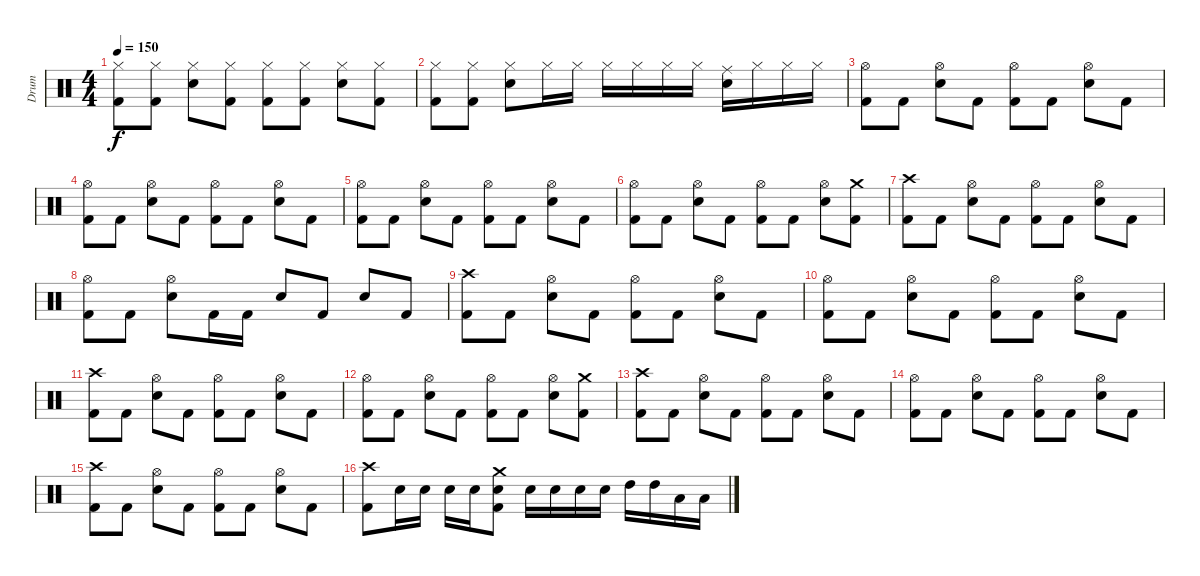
\track ("Drum" "Drum") {instrument percussion}
\staff {score}
\articulation defaults
\ts (4 4)
\tempo 150
\clef neutral
\ks c
("Hi-Hat (closed)" "Kick (hit) 2").8{dy f} ("Hi-Hat (closed)" "Kick (hit) 2").8 ("Hi-Hat (closed)" "Electric Snare (hit)").8 ("Hi-Hat (closed)" "Kick (hit) 2").8 ("Hi-Hat (closed)" "Kick (hit) 2").8 ("Hi-Hat (closed)" "Kick (hit) 2").8 ("Hi-Hat (closed)" "Electric Snare (hit)").8 ("Hi-Hat (closed)" "Kick (hit) 2").8 |
("Hi-Hat (closed)" "Kick (hit) 2").8 ("Hi-Hat (closed)" "Kick (hit) 2").8 ("Hi-Hat (closed)" "Electric Snare (hit)").8 "Hi-Hat (closed)".16 "Hi-Hat (closed)".16 "Hi-Hat (closed)".16 "Hi-Hat (closed)".16 "Hi-Hat (closed)".16 "Hi-Hat (closed)".16 ("Ride (middle)" "Electric Snare (hit)").16 "Hi-Hat (closed)".16 "Hi-Hat (closed)".16 "Hi-Hat (closed)".16 |
("Hi-Hat (open)" "Kick (hit) 2").8 "Kick (hit) 2".8 ("Hi-Hat (open)" "Electric Snare (hit)").8 "Kick (hit) 2".8 ("Hi-Hat (open)" "Kick (hit) 2").8 "Kick (hit) 2".8 ("Hi-Hat (open)" "Electric Snare (hit)").8 "Kick (hit) 2".8 |
("Hi-Hat (open)" "Kick (hit) 2").8 "Kick (hit) 2".8 ("Hi-Hat (open)" "Electric Snare (hit)").8 "Kick (hit) 2".8 ("Hi-Hat (open)" "Kick (hit) 2").8 "Kick (hit) 2".8 ("Hi-Hat (open)" "Electric Snare (hit)").8 "Kick (hit) 2".8 |
("Hi-Hat (open)" "Kick (hit) 2").8 "Kick (hit) 2".8 ("Hi-Hat (open)" "Electric Snare (hit)").8 "Kick (hit) 2".8 ("Hi-Hat (open)" "Kick (hit) 2").8 "Kick (hit) 2".8 ("Hi-Hat (open)" "Electric Snare (hit)").8 "Kick (hit) 2".8 |
("Hi-Hat (open)" "Kick (hit) 2").8 "Kick (hit) 2".8 ("Hi-Hat (open)" "Electric Snare (hit)").8 "Kick (hit) 2".8 ("Hi-Hat (open)" "Kick (hit) 2").8 "Kick (hit) 2".8 ("Hi-Hat (open)" "Electric Snare (hit)").8 ("Crash medium (hit)" "Kick (hit) 2").8 |
("Crash high (hit)" "Kick (hit) 2").8 "Kick (hit) 2".8 ("Hi-Hat (open)" "Electric Snare (hit)").8 "Kick (hit) 2".8 ("Hi-Hat (open)" "Kick (hit) 2").8 "Kick (hit) 2".8 ("Hi-Hat (open)" "Electric Snare (hit)").8 "Kick (hit) 2".8 |
("Hi-Hat (open)" "Kick (hit) 2").8 "Kick (hit) 2".8 ("Hi-Hat (open)" "Electric Snare (hit)").8 "Kick (hit) 2".16 "Kick (hit) 2".16 "Electric Snare (hit)".8 "Kick (hit) 2".8 "Electric Snare (hit)".8 "Kick (hit) 2".8 |
("Crash high (hit)" "Kick (hit) 2").8 "Kick (hit) 2".8 ("Hi-Hat (open)" "Electric Snare (hit)").8 "Kick (hit) 2".8 ("Hi-Hat (open)" "Kick (hit) 2").8 "Kick (hit) 2".8 ("Hi-Hat (open)" "Electric Snare (hit)").8 "Kick (hit) 2".8 |
("Hi-Hat (open)" "Kick (hit) 2").8 "Kick (hit) 2".8 ("Hi-Hat (open)" "Electric Snare (hit)").8 "Kick (hit) 2".8 ("Hi-Hat (open)" "Kick (hit) 2").8 "Kick (hit) 2".8 ("Hi-Hat (open)" "Electric Snare (hit)").8 "Kick (hit) 2".8 |
("Crash high (hit)" "Kick (hit) 2").8 "Kick (hit) 2".8 ("Hi-Hat (open)" "Electric Snare (hit)").8 "Kick (hit) 2".8 ("Hi-Hat (open)" "Kick (hit) 2").8 "Kick (hit) 2".8 ("Hi-Hat (open)" "Electric Snare (hit)").8 "Kick (hit) 2".8 |
("Hi-Hat (open)" "Kick (hit) 2").8 "Kick (hit) 2".8 ("Hi-Hat (open)" "Electric Snare (hit)").8 "Kick (hit) 2".8 ("Hi-Hat (open)" "Kick (hit) 2").8 "Kick (hit) 2".8 ("Hi-Hat (open)" "Electric Snare (hit)").8 ("Crash medium (hit)" "Kick (hit) 2").8 |
("Crash high (hit)" "Kick (hit) 2").8 "Kick (hit) 2".8 ("Hi-Hat (open)" "Electric Snare (hit)").8 "Kick (hit) 2".8 ("Hi-Hat (open)" "Kick (hit) 2").8 "Kick (hit) 2".8 ("Hi-Hat (open)" "Electric Snare (hit)").8 "Kick (hit) 2".8 |
("Hi-Hat (open)" "Kick (hit) 2").8 "Kick (hit) 2".8 ("Hi-Hat (open)" "Electric Snare (hit)").8 "Kick (hit) 2".8 ("Hi-Hat (open)" "Kick (hit) 2").8 "Kick (hit) 2".8 ("Hi-Hat (open)" "Electric Snare (hit)").8 "Kick (hit) 2".8 |
("Crash high (hit)" "Kick (hit) 2").8 "Kick (hit) 2".8 ("Hi-Hat (open)" "Electric Snare (hit)").8 "Kick (hit) 2".8 ("Hi-Hat (open)" "Kick (hit) 2").8 "Kick (hit) 2".8 ("Hi-Hat (open)" "Electric Snare (hit)").8 "Kick (hit) 2".8 |
("Crash high (hit)" "Kick (hit) 2").8 "Electric Snare (hit)".16 "Electric Snare (hit)".16 "Electric Snare (hit)".16 "Electric Snare (hit)".16 ("Crash medium (hit)" "Electric Snare (hit)" "Kick (hit) 2").8 "Electric Snare (hit)".16 "Electric Snare (hit)".16 "Electric Snare (hit)".16 "Electric Snare (hit)".16 "High Tom (hit)".16 "High Tom (hit)".16 "Low Tom (hit)".16 "Low Tom (hit)".16
